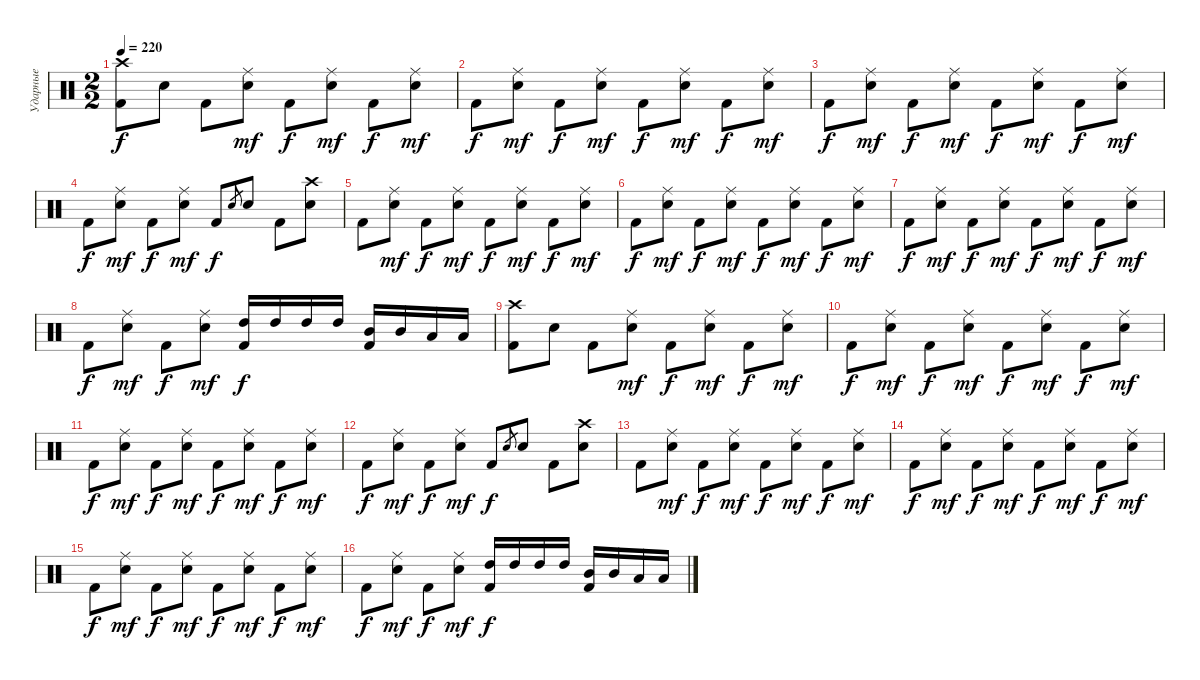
\track ("Ударные" "Ударные") {instrument percussion}
\staff {score}
\articulation defaults
\ts (2 2)
\tempo 220
\clef neutral
\ks c
("Crash high (hit)" "Kick (hit) 2").8{dy f} "Electric Snare (hit)".8 "Kick (hit) 2".8 ("Ride (middle)" "Electric Snare (hit)").8{dy mf} "Kick (hit) 2".8{dy f} ("Ride (middle)" "Electric Snare (hit)").8{dy mf} "Kick (hit) 2".8{dy f} ("Ride (middle)" "Electric Snare (hit)").8{dy mf} |
"Kick (hit) 2".8{dy f} ("Ride (middle)" "Electric Snare (hit)").8{dy mf} "Kick (hit) 2".8{dy f} ("Ride (middle)" "Electric Snare (hit)").8{dy mf} "Kick (hit) 2".8{dy f} ("Ride (middle)" "Electric Snare (hit)").8{dy mf} "Kick (hit) 2".8{dy f} ("Ride (middle)" "Electric Snare (hit)").8{dy mf} |
"Kick (hit) 2".8{dy f} ("Ride (middle)" "Electric Snare (hit)").8{dy mf} "Kick (hit) 2".8{dy f} ("Ride (middle)" "Electric Snare (hit)").8{dy mf} "Kick (hit) 2".8{dy f} ("Ride (middle)" "Electric Snare (hit)").8{dy mf} "Kick (hit) 2".8{dy f} ("Ride (middle)" "Electric Snare (hit)").8{dy mf} |
"Kick (hit) 2".8{dy f} ("Ride (middle)" "Electric Snare (hit)").8{dy mf} "Kick (hit) 2".8{dy f} ("Ride (middle)" "Electric Snare (hit)").8{dy mf} "Kick (hit) 2".8{dy f} "Electric Snare (hit)".8{gr} "Electric Snare (hit)".8 "Kick (hit) 2".8 ("Crash high (hit)" "Electric Snare (hit)").8 |
"Kick (hit) 2".8 ("Ride (middle)" "Electric Snare (hit)").8{dy mf} "Kick (hit) 2".8{dy f} ("Ride (middle)" "Electric Snare (hit)").8{dy mf} "Kick (hit) 2".8{dy f} ("Ride (middle)" "Electric Snare (hit)").8{dy mf} "Kick (hit) 2".8{dy f} ("Ride (middle)" "Electric Snare (hit)").8{dy mf} |
"Kick (hit) 2".8{dy f} ("Ride (middle)" "Electric Snare (hit)").8{dy mf} "Kick (hit) 2".8{dy f} ("Ride (middle)" "Electric Snare (hit)").8{dy mf} "Kick (hit) 2".8{dy f} ("Ride (middle)" "Electric Snare (hit)").8{dy mf} "Kick (hit) 2".8{dy f} ("Ride (middle)" "Electric Snare (hit)").8{dy mf} |
"Kick (hit) 2".8{dy f} ("Ride (middle)" "Electric Snare (hit)").8{dy mf} "Kick (hit) 2".8{dy f} ("Ride (middle)" "Electric Snare (hit)").8{dy mf} "Kick (hit) 2".8{dy f} ("Ride (middle)" "Electric Snare (hit)").8{dy mf} "Kick (hit) 2".8{dy f} ("Ride (middle)" "Electric Snare (hit)").8{dy mf} |
"Kick (hit) 2".8{dy f} ("Ride (middle)" "Electric Snare (hit)").8{dy mf} "Kick (hit) 2".8{dy f} ("Ride (middle)" "Electric Snare (hit)").8{dy mf} ("High Tom (hit)" "Kick (hit) 2").16{dy f} "High Tom (hit)".16 "High Tom (hit)".16 "High Tom (hit)".16 ("Mid Tom (hit)" "Kick (hit) 2").16 "Mid Tom (hit)".16 "Low Tom (hit)".16 "Low Tom (hit)".16 |
("Crash high (hit)" "Kick (hit) 2").8 "Electric Snare (hit)".8 "Kick (hit) 2".8 ("Ride (middle)" "Electric Snare (hit)").8{dy mf} "Kick (hit) 2".8{dy f} ("Ride (middle)" "Electric Snare (hit)").8{dy mf} "Kick (hit) 2".8{dy f} ("Ride (middle)" "Electric Snare (hit)").8{dy mf} |
"Kick (hit) 2".8{dy f} ("Ride (middle)" "Electric Snare (hit)").8{dy mf} "Kick (hit) 2".8{dy f} ("Ride (middle)" "Electric Snare (hit)").8{dy mf} "Kick (hit) 2".8{dy f} ("Ride (middle)" "Electric Snare (hit)").8{dy mf} "Kick (hit) 2".8{dy f} ("Ride (middle)" "Electric Snare (hit)").8{dy mf} |
"Kick (hit) 2".8{dy f} ("Ride (middle)" "Electric Snare (hit)").8{dy mf} "Kick (hit) 2".8{dy f} ("Ride (middle)" "Electric Snare (hit)").8{dy mf} "Kick (hit) 2".8{dy f} ("Ride (middle)" "Electric Snare (hit)").8{dy mf} "Kick (hit) 2".8{dy f} ("Ride (middle)" "Electric Snare (hit)").8{dy mf} |
"Kick (hit) 2".8{dy f} ("Ride (middle)" "Electric Snare (hit)").8{dy mf} "Kick (hit) 2".8{dy f} ("Ride (middle)" "Electric Snare (hit)").8{dy mf} "Kick (hit) 2".8{dy f} "Electric Snare (hit)".8{gr} "Electric Snare (hit)".8 "Kick (hit) 2".8 ("Crash high (hit)" "Electric Snare (hit)").8 |
"Kick (hit) 2".8 ("Ride (middle)" "Electric Snare (hit)").8{dy mf} "Kick (hit) 2".8{dy f} ("Ride (middle)" "Electric Snare (hit)").8{dy mf} "Kick (hit) 2".8{dy f} ("Ride (middle)" "Electric Snare (hit)").8{dy mf} "Kick (hit) 2".8{dy f} ("Ride (middle)" "Electric Snare (hit)").8{dy mf} |
"Kick (hit) 2".8{dy f} ("Ride (middle)" "Electric Snare (hit)").8{dy mf} "Kick (hit) 2".8{dy f} ("Ride (middle)" "Electric Snare (hit)").8{dy mf} "Kick (hit) 2".8{dy f} ("Ride (middle)" "Electric Snare (hit)").8{dy mf} "Kick (hit) 2".8{dy f} ("Ride (middle)" "Electric Snare (hit)").8{dy mf} |
"Kick (hit) 2".8{dy f} ("Ride (middle)" "Electric Snare (hit)").8{dy mf} "Kick (hit) 2".8{dy f} ("Ride (middle)" "Electric Snare (hit)").8{dy mf} "Kick (hit) 2".8{dy f} ("Ride (middle)" "Electric Snare (hit)").8{dy mf} "Kick (hit) 2".8{dy f} ("Ride (middle)" "Electric Snare (hit)").8{dy mf} |
"Kick (hit) 2".8{dy f} ("Ride (middle)" "Electric Snare (hit)").8{dy mf} "Kick (hit) 2".8{dy f} ("Ride (middle)" "Electric Snare (hit)").8{dy mf} ("High Tom (hit)" "Kick (hit) 2").16{dy f} "High Tom (hit)".16 "High Tom (hit)".16 "High Tom (hit)".16 ("Mid Tom (hit)" "Kick (hit) 2").16 "Mid Tom (hit)".16 "Low Tom (hit)".16 "Low Tom (hit)".16
